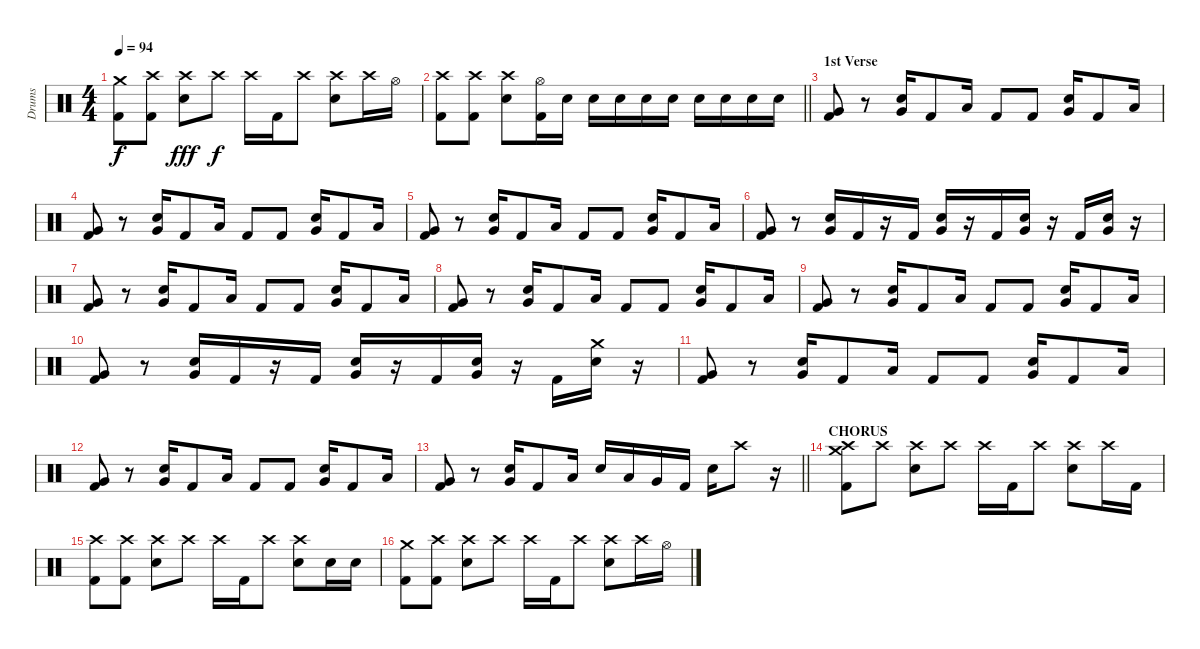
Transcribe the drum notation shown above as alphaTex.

\track ("Drums" "Drums") {instrument percussion}
\staff {score}
\articulation defaults
\ts (4 4)
\tempo 94
\clef neutral
\ks c
("Crash medium (hit)" "Kick (hit) 2").8{dy f} ("Crash high (hit)" "Kick (hit) 2").8 ("Crash high (hit)" "Electric Snare (hit)").8{dy fff} "Crash high (hit)".8{dy f} "Crash high (hit)".16 "Kick (hit) 2".16 "Crash high (hit)".8 ("Crash high (hit)" "Electric Snare (hit)").8 "Crash high (hit)".16 "Hi-Hat (open)".16 |
\barLineRight lightlight
("Crash high (hit)" "Kick (hit) 2").8 ("Crash high (hit)" "Kick (hit) 2").8 ("Crash high (hit)" "Electric Snare (hit)").8 ("Hi-Hat (open)" "Kick (hit) 2").16 "Electric Snare (hit)".16 "Electric Snare (hit)".16 "Electric Snare (hit)".16 "Electric Snare (hit)".16 "Electric Snare (hit)".16 "Electric Snare (hit)".16 "Electric Snare (hit)".16 "Electric Snare (hit)".16 "Electric Snare (hit)".16 |
\section ("" "1st Verse")
("Very Low Tom (hit)" "Kick (hit) 2").8 r.8 ("Electric Snare (hit)" "Very Low Tom (hit)").16 "Kick (hit) 2".8 "Low Tom (hit)".16 "Kick (hit) 2".8 "Kick (hit) 2".8 ("Electric Snare (hit)" "Very Low Tom (hit)").16 "Kick (hit) 2".8 "Low Tom (hit)".16 |
("Very Low Tom (hit)" "Kick (hit) 2").8 r.8 ("Electric Snare (hit)" "Very Low Tom (hit)").16 "Kick (hit) 2".8 "Low Tom (hit)".16 "Kick (hit) 2".8 "Kick (hit) 2".8 ("Electric Snare (hit)" "Very Low Tom (hit)").16 "Kick (hit) 2".8 "Low Tom (hit)".16 |
("Very Low Tom (hit)" "Kick (hit) 2").8 r.8 ("Electric Snare (hit)" "Very Low Tom (hit)").16 "Kick (hit) 2".8 "Low Tom (hit)".16 "Kick (hit) 2".8 "Kick (hit) 2".8 ("Electric Snare (hit)" "Very Low Tom (hit)").16 "Kick (hit) 2".8 "Low Tom (hit)".16 |
("Very Low Tom (hit)" "Kick (hit) 2").8 r.8 ("Electric Snare (hit)" "Very Low Tom (hit)").16 "Kick (hit) 2".16 r.16 "Kick (hit) 2".16 ("Electric Snare (hit)" "Very Low Tom (hit)").16 r.16 "Kick (hit) 2".16 ("Electric Snare (hit)" "Very Low Tom (hit)").16 r.16 "Kick (hit) 2".16 ("Electric Snare (hit)" "Very Low Tom (hit)").16 r.16 |
("Very Low Tom (hit)" "Kick (hit) 2").8 r.8 ("Electric Snare (hit)" "Very Low Tom (hit)").16 "Kick (hit) 2".8 "Low Tom (hit)".16 "Kick (hit) 2".8 "Kick (hit) 2".8 ("Electric Snare (hit)" "Very Low Tom (hit)").16 "Kick (hit) 2".8 "Low Tom (hit)".16 |
("Very Low Tom (hit)" "Kick (hit) 2").8 r.8 ("Electric Snare (hit)" "Very Low Tom (hit)").16 "Kick (hit) 2".8 "Low Tom (hit)".16 "Kick (hit) 2".8 "Kick (hit) 2".8 ("Electric Snare (hit)" "Very Low Tom (hit)").16 "Kick (hit) 2".8 "Low Tom (hit)".16 |
("Very Low Tom (hit)" "Kick (hit) 2").8 r.8 ("Electric Snare (hit)" "Very Low Tom (hit)").16 "Kick (hit) 2".8 "Low Tom (hit)".16 "Kick (hit) 2".8 "Kick (hit) 2".8 ("Electric Snare (hit)" "Very Low Tom (hit)").16 "Kick (hit) 2".8 "Low Tom (hit)".16 |
("Very Low Tom (hit)" "Kick (hit) 2").8 r.8 ("Electric Snare (hit)" "Very Low Tom (hit)").16 "Kick (hit) 2".16 r.16 "Kick (hit) 2".16 ("Electric Snare (hit)" "Very Low Tom (hit)").16 r.16 "Kick (hit) 2".16 ("Electric Snare (hit)" "Very Low Tom (hit)").16 r.16 "Kick (hit) 2".16 ("Crash medium (hit)" "Electric Snare (hit)").16 r.16 |
("Very Low Tom (hit)" "Kick (hit) 2").8 r.8 ("Electric Snare (hit)" "Very Low Tom (hit)").16 "Kick (hit) 2".8 "Low Tom (hit)".16 "Kick (hit) 2".8 "Kick (hit) 2".8 ("Electric Snare (hit)" "Very Low Tom (hit)").16 "Kick (hit) 2".8 "Low Tom (hit)".16 |
("Very Low Tom (hit)" "Kick (hit) 2").8 r.8 ("Electric Snare (hit)" "Very Low Tom (hit)").16 "Kick (hit) 2".8 "Low Tom (hit)".16 "Kick (hit) 2".8 "Kick (hit) 2".8 ("Electric Snare (hit)" "Very Low Tom (hit)").16 "Kick (hit) 2".8 "Low Tom (hit)".16 |
\barLineRight lightlight
("Very Low Tom (hit)" "Kick (hit) 2").8 r.8 ("Electric Snare (hit)" "Very Low Tom (hit)").16 "Kick (hit) 2".8 "Low Tom (hit)".16 "Electric Snare (hit)".16 "Low Tom (hit)".16 "Very Low Tom (hit)".16 "Kick (hit) 2".16 "Electric Snare (hit)".16 "Crash high (hit)".8 r.16 |
\section ("" "CHORUS")
("Crash medium (hit)" "Crash high (hit)" "Kick (hit) 2").8 "Crash high (hit)".8 ("Crash high (hit)" "Electric Snare (hit)").8 "Crash high (hit)".8 "Crash high (hit)".16 "Kick (hit) 2".16 "Crash high (hit)".8 ("Crash high (hit)" "Electric Snare (hit)").8 "Crash high (hit)".16 "Kick (hit) 2".16 |
("Crash high (hit)" "Kick (hit) 2").8 ("Crash high (hit)" "Kick (hit) 2").8 ("Crash high (hit)" "Electric Snare (hit)").8 "Crash high (hit)".8 "Crash high (hit)".16 "Kick (hit) 2".16 "Crash high (hit)".8 ("Crash high (hit)" "Electric Snare (hit)").8 "Electric Snare (hit)".16 "Electric Snare (hit)".16 |
("Crash medium (hit)" "Kick (hit) 2").8 ("Crash high (hit)" "Kick (hit) 2").8 ("Crash high (hit)" "Electric Snare (hit)").8 "Crash high (hit)".8 "Crash high (hit)".16 "Kick (hit) 2".16 "Crash high (hit)".8 ("Crash high (hit)" "Electric Snare (hit)").8 "Crash high (hit)".16 "Hi-Hat (open)".16
